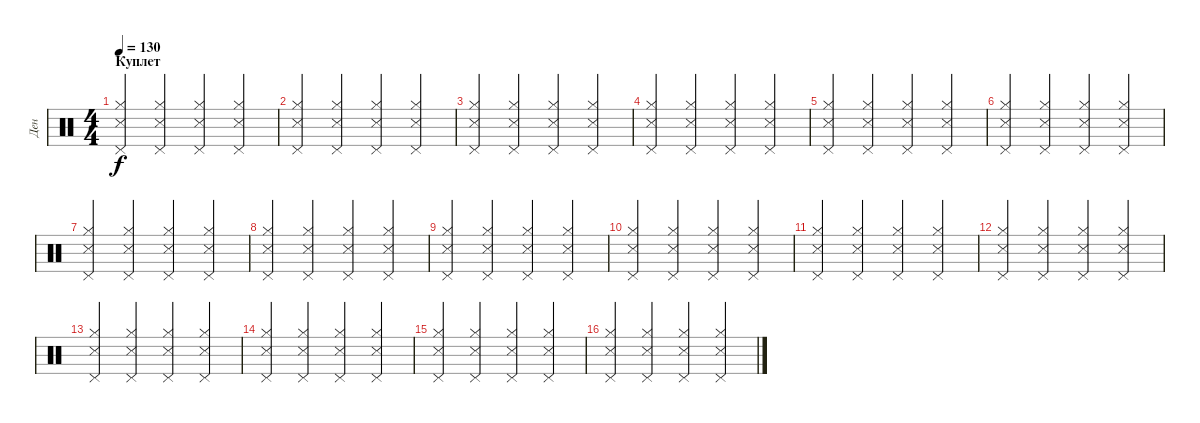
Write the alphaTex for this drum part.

\track ("Ден" "Ден") {instrument percussion}
\staff {score}
\articulation defaults
\ts (4 4)
\section ("" "Куплет")
\tempo 130
\clef neutral
\ks c
("Pedal Hi-Hat (hit)" "Hi-Hat (closed)" "Snare (side stick) 3").4{dy f} ("Pedal Hi-Hat (hit)" "Hi-Hat (closed)" "Snare (side stick) 3").4 ("Pedal Hi-Hat (hit)" "Hi-Hat (closed)" "Snare (side stick) 3").4 ("Pedal Hi-Hat (hit)" "Hi-Hat (closed)" "Snare (side stick) 3").4 |
("Pedal Hi-Hat (hit)" "Hi-Hat (closed)" "Snare (side stick) 3").4 ("Pedal Hi-Hat (hit)" "Hi-Hat (closed)" "Snare (side stick) 3").4 ("Pedal Hi-Hat (hit)" "Hi-Hat (closed)" "Snare (side stick) 3").4 ("Pedal Hi-Hat (hit)" "Hi-Hat (closed)" "Snare (side stick) 3").4 |
("Pedal Hi-Hat (hit)" "Hi-Hat (closed)" "Snare (side stick) 3").4 ("Pedal Hi-Hat (hit)" "Hi-Hat (closed)" "Snare (side stick) 3").4 ("Pedal Hi-Hat (hit)" "Hi-Hat (closed)" "Snare (side stick) 3").4 ("Pedal Hi-Hat (hit)" "Hi-Hat (closed)" "Snare (side stick) 3").4 |
("Pedal Hi-Hat (hit)" "Hi-Hat (closed)" "Snare (side stick) 3").4 ("Pedal Hi-Hat (hit)" "Hi-Hat (closed)" "Snare (side stick) 3").4 ("Pedal Hi-Hat (hit)" "Hi-Hat (closed)" "Snare (side stick) 3").4 ("Pedal Hi-Hat (hit)" "Hi-Hat (closed)" "Snare (side stick) 3").4 |
("Pedal Hi-Hat (hit)" "Hi-Hat (closed)" "Snare (side stick) 3").4 ("Pedal Hi-Hat (hit)" "Hi-Hat (closed)" "Snare (side stick) 3").4 ("Pedal Hi-Hat (hit)" "Hi-Hat (closed)" "Snare (side stick) 3").4 ("Pedal Hi-Hat (hit)" "Hi-Hat (closed)" "Snare (side stick) 3").4 |
("Pedal Hi-Hat (hit)" "Hi-Hat (closed)" "Snare (side stick) 3").4 ("Pedal Hi-Hat (hit)" "Hi-Hat (closed)" "Snare (side stick) 3").4 ("Pedal Hi-Hat (hit)" "Hi-Hat (closed)" "Snare (side stick) 3").4 ("Pedal Hi-Hat (hit)" "Hi-Hat (closed)" "Snare (side stick) 3").4 |
("Pedal Hi-Hat (hit)" "Hi-Hat (closed)" "Snare (side stick) 3").4 ("Pedal Hi-Hat (hit)" "Hi-Hat (closed)" "Snare (side stick) 3").4 ("Pedal Hi-Hat (hit)" "Hi-Hat (closed)" "Snare (side stick) 3").4 ("Pedal Hi-Hat (hit)" "Hi-Hat (closed)" "Snare (side stick) 3").4 |
("Pedal Hi-Hat (hit)" "Hi-Hat (closed)" "Snare (side stick) 3").4 ("Pedal Hi-Hat (hit)" "Hi-Hat (closed)" "Snare (side stick) 3").4 ("Pedal Hi-Hat (hit)" "Hi-Hat (closed)" "Snare (side stick) 3").4 ("Pedal Hi-Hat (hit)" "Hi-Hat (closed)" "Snare (side stick) 3").4 |
("Pedal Hi-Hat (hit)" "Hi-Hat (closed)" "Snare (side stick) 3").4 ("Pedal Hi-Hat (hit)" "Hi-Hat (closed)" "Snare (side stick) 3").4 ("Pedal Hi-Hat (hit)" "Hi-Hat (closed)" "Snare (side stick) 3").4 ("Pedal Hi-Hat (hit)" "Hi-Hat (closed)" "Snare (side stick) 3").4 |
("Pedal Hi-Hat (hit)" "Hi-Hat (closed)" "Snare (side stick) 3").4 ("Pedal Hi-Hat (hit)" "Hi-Hat (closed)" "Snare (side stick) 3").4 ("Pedal Hi-Hat (hit)" "Hi-Hat (closed)" "Snare (side stick) 3").4 ("Pedal Hi-Hat (hit)" "Hi-Hat (closed)" "Snare (side stick) 3").4 |
("Pedal Hi-Hat (hit)" "Hi-Hat (closed)" "Snare (side stick) 3").4 ("Pedal Hi-Hat (hit)" "Hi-Hat (closed)" "Snare (side stick) 3").4 ("Pedal Hi-Hat (hit)" "Hi-Hat (closed)" "Snare (side stick) 3").4 ("Pedal Hi-Hat (hit)" "Hi-Hat (closed)" "Snare (side stick) 3").4 |
("Pedal Hi-Hat (hit)" "Hi-Hat (closed)" "Snare (side stick) 3").4 ("Pedal Hi-Hat (hit)" "Hi-Hat (closed)" "Snare (side stick) 3").4 ("Pedal Hi-Hat (hit)" "Hi-Hat (closed)" "Snare (side stick) 3").4 ("Pedal Hi-Hat (hit)" "Hi-Hat (closed)" "Snare (side stick) 3").4 |
("Pedal Hi-Hat (hit)" "Hi-Hat (closed)" "Snare (side stick) 3").4 ("Pedal Hi-Hat (hit)" "Hi-Hat (closed)" "Snare (side stick) 3").4 ("Pedal Hi-Hat (hit)" "Hi-Hat (closed)" "Snare (side stick) 3").4 ("Pedal Hi-Hat (hit)" "Hi-Hat (closed)" "Snare (side stick) 3").4 |
("Pedal Hi-Hat (hit)" "Hi-Hat (closed)" "Snare (side stick) 3").4 ("Pedal Hi-Hat (hit)" "Hi-Hat (closed)" "Snare (side stick) 3").4 ("Pedal Hi-Hat (hit)" "Hi-Hat (closed)" "Snare (side stick) 3").4 ("Pedal Hi-Hat (hit)" "Hi-Hat (closed)" "Snare (side stick) 3").4 |
("Pedal Hi-Hat (hit)" "Hi-Hat (closed)" "Snare (side stick) 3").4 ("Pedal Hi-Hat (hit)" "Hi-Hat (closed)" "Snare (side stick) 3").4 ("Pedal Hi-Hat (hit)" "Hi-Hat (closed)" "Snare (side stick) 3").4 ("Pedal Hi-Hat (hit)" "Hi-Hat (closed)" "Snare (side stick) 3").4 |
("Pedal Hi-Hat (hit)" "Hi-Hat (closed)" "Snare (side stick) 3").4 ("Pedal Hi-Hat (hit)" "Hi-Hat (closed)" "Snare (side stick) 3").4 ("Pedal Hi-Hat (hit)" "Hi-Hat (closed)" "Snare (side stick) 3").4 ("Pedal Hi-Hat (hit)" "Hi-Hat (closed)" "Snare (side stick) 3").4
